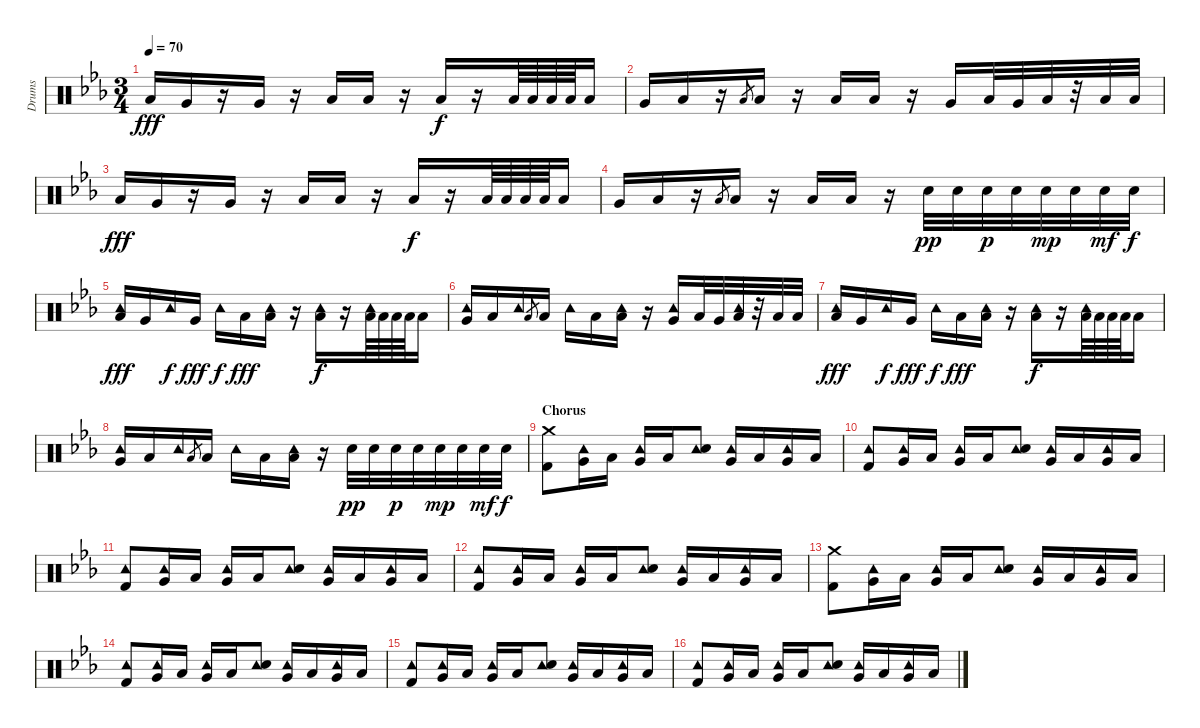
\track ("Drums" "Drums") {instrument percussion}
\staff {score}
\articulation defaults
\ts (3 4)
\tempo 70
\clef neutral
\ks cminor "Low Tom (hit)".16{dy fff} "Very Low Tom (hit)".16
r.16 "Very Low Tom (hit)".16 r.16 "Low Floor Tom (hit)".16 "Low Tom (hit)".16 r.16 "Low Floor Tom (hit)".16{dy f} r.16 "Low Floor Tom (hit)".64 "Low Floor Tom (hit)".64 "Low Floor Tom (hit)".64 "Low Floor Tom (hit)".64 "Low Floor Tom (hit)".16 |
"Very Low Tom (hit)".16 "Low Floor Tom (hit)".16 r.16 "Low Tom (hit)".8{gr} "Low Tom (hit)".16 r.16 "Low Floor Tom (hit)".16 "Low Tom (hit)".16 r.16 "Very Low Tom (hit)".16 "Low Tom (hit)".32 "Very Low Tom (hit)".32 "Low Tom (hit)".32 r.32 "Low Floor Tom (hit)".32 "Low Floor Tom (hit)".32 |
"Low Tom (hit)".16{dy fff} "Very Low Tom (hit)".16 r.16 "Very Low Tom (hit)".16 r.16 "Low Floor Tom (hit)".16 "Low Tom (hit)".16 r.16 "Low Floor Tom (hit)".16{dy f} r.16 "Low Floor Tom (hit)".64 "Low Floor Tom (hit)".64 "Low Floor Tom (hit)".64 "Low Floor Tom (hit)".64 "Low Floor Tom (hit)".16 |
"Very Low Tom (hit)".16 "Low Floor Tom (hit)".16 r.16 "Low Tom (hit)".8{gr} "Low Tom (hit)".16 r.16 "Low Floor Tom (hit)".16 "Low Tom (hit)".16 r.16 "Snare (hit) 2".32{dy pp} "Snare (hit) 2".32 "Snare (hit) 2".32{dy p} "Snare (hit) 2".32 "Snare (hit) 2".32{dy mp} "Snare (hit) 2".32 "Snare (hit) 2".32{dy mf} "Snare (hit) 2".32{dy f} |
("Tambourine (hit)" "Low Tom (hit)").16{dy fff} "Very Low Tom (hit)".16 "Tambourine (hit)".16{dy f} "Very Low Tom (hit)".16{dy fff} "Tambourine (hit)".16{dy f} "Low Floor Tom (hit)".16{dy fff} ("Tambourine (hit)" "Low Tom (hit)").16 r.16 ("Tambourine (hit)" "Low Floor Tom (hit)").16{dy f} r.16 ("Tambourine (hit)" "Low Floor Tom (hit)").64 "Low Floor Tom (hit)".64 "Low Floor Tom (hit)".64 "Low Floor Tom (hit)".64 "Low Floor Tom (hit)".16 |
("Tambourine (hit)" "Very Low Tom (hit)").16 "Low Floor Tom (hit)".16 "Tambourine (hit)".16 "Low Tom (hit)".8{gr} "Low Tom (hit)".16 "Tambourine (hit)".16 "Low Floor Tom (hit)".16 ("Tambourine (hit)" "Low Tom (hit)").16 r.16 ("Tambourine (hit)" "Very Low Tom (hit)").16 "Low Tom (hit)".32 "Very Low Tom (hit)".32 ("Tambourine (hit)" "Low Tom (hit)").32 r.32 "Low Floor Tom (hit)".32 "Low Floor Tom (hit)".32 |
("Tambourine (hit)" "Low Tom (hit)").16{dy fff} "Very Low Tom (hit)".16 "Tambourine (hit)".16{dy f} "Very Low Tom (hit)".16{dy fff} "Tambourine (hit)".16{dy f} "Low Floor Tom (hit)".16{dy fff} ("Tambourine (hit)" "Low Tom (hit)").16 r.16 ("Tambourine (hit)" "Low Floor Tom (hit)").16{dy f} r.16 ("Tambourine (hit)" "Low Floor Tom (hit)").64 "Low Floor Tom (hit)".64 "Low Floor Tom (hit)".64 "Low Floor Tom (hit)".64 "Low Floor Tom (hit)".16 |
("Tambourine (hit)" "Very Low Tom (hit)").16 "Low Floor Tom (hit)".16 "Tambourine (hit)".16 "Low Tom (hit)".8{gr} "Low Tom (hit)".16 "Tambourine (hit)".16 "Low Floor Tom (hit)".16 ("Tambourine (hit)" "Low Tom (hit)").16 r.16 "Snare (hit) 2".32{dy pp} "Snare (hit) 2".32 "Snare (hit) 2".32{dy p} "Snare (hit) 2".32 "Snare (hit) 2".32{dy mp} "Snare (hit) 2".32 "Snare (hit) 2".32{dy mf} "Snare (hit) 2".32{dy f} |
\section ("" "Chorus")
("Crash medium (hit)" "Kick (hit) 2").8 ("Tambourine (hit)" "Very Low Tom (hit)").16 "Low Floor Tom (hit)".16 ("Tambourine (hit)" "Very Low Tom (hit)").16 "Low Floor Tom (hit)".16 ("Tambourine (hit)" "Snare (hit) 2").8 ("Tambourine (hit)" "Very Low Tom (hit)").16 "Low Floor Tom (hit)".16 ("Tambourine (hit)" "Very Low Tom (hit)").16 "Low Floor Tom (hit)".16 |
("Tambourine (hit)" "Kick (hit) 2").8 ("Tambourine (hit)" "Very Low Tom (hit)").16 "Low Floor Tom (hit)".16 ("Tambourine (hit)" "Very Low Tom (hit)").16 "Low Floor Tom (hit)".16 ("Tambourine (hit)" "Snare (hit) 2").8 ("Tambourine (hit)" "Very Low Tom (hit)").16 "Low Floor Tom (hit)".16 ("Tambourine (hit)" "Very Low Tom (hit)").16 "Low Floor Tom (hit)".16 |
("Tambourine (hit)" "Kick (hit) 2").8 ("Tambourine (hit)" "Very Low Tom (hit)").16 "Low Floor Tom (hit)".16 ("Tambourine (hit)" "Very Low Tom (hit)").16 "Low Floor Tom (hit)".16 ("Tambourine (hit)" "Snare (hit) 2").8 ("Tambourine (hit)" "Very Low Tom (hit)").16 "Low Floor Tom (hit)".16 ("Tambourine (hit)" "Very Low Tom (hit)").16 "Low Floor Tom (hit)".16 |
("Tambourine (hit)" "Kick (hit) 2").8 ("Tambourine (hit)" "Very Low Tom (hit)").16 "Low Floor Tom (hit)".16 ("Tambourine (hit)" "Very Low Tom (hit)").16 "Low Floor Tom (hit)".16 ("Tambourine (hit)" "Snare (hit) 2").8 ("Tambourine (hit)" "Very Low Tom (hit)").16 "Low Floor Tom (hit)".16 ("Tambourine (hit)" "Very Low Tom (hit)").16 "Low Floor Tom (hit)".16 |
("Crash medium (hit)" "Kick (hit) 2").8 ("Tambourine (hit)" "Very Low Tom (hit)").16 "Low Floor Tom (hit)".16 ("Tambourine (hit)" "Very Low Tom (hit)").16 "Low Floor Tom (hit)".16 ("Tambourine (hit)" "Snare (hit) 2").8 ("Tambourine (hit)" "Very Low Tom (hit)").16 "Low Floor Tom (hit)".16 ("Tambourine (hit)" "Very Low Tom (hit)").16 "Low Floor Tom (hit)".16 |
("Tambourine (hit)" "Kick (hit) 2").8 ("Tambourine (hit)" "Very Low Tom (hit)").16 "Low Floor Tom (hit)".16 ("Tambourine (hit)" "Very Low Tom (hit)").16 "Low Floor Tom (hit)".16 ("Tambourine (hit)" "Snare (hit) 2").8 ("Tambourine (hit)" "Very Low Tom (hit)").16 "Low Floor Tom (hit)".16 ("Tambourine (hit)" "Very Low Tom (hit)").16 "Low Floor Tom (hit)".16 |
("Tambourine (hit)" "Kick (hit) 2").8 ("Tambourine (hit)" "Very Low Tom (hit)").16 "Low Floor Tom (hit)".16 ("Tambourine (hit)" "Very Low Tom (hit)").16 "Low Floor Tom (hit)".16 ("Tambourine (hit)" "Snare (hit) 2").8 ("Tambourine (hit)" "Very Low Tom (hit)").16 "Low Floor Tom (hit)".16 ("Tambourine (hit)" "Very Low Tom (hit)").16 "Low Floor Tom (hit)".16 |
("Tambourine (hit)" "Kick (hit) 2").8 ("Tambourine (hit)" "Very Low Tom (hit)").16 "Low Floor Tom (hit)".16 ("Tambourine (hit)" "Very Low Tom (hit)").16 "Low Floor Tom (hit)".16 ("Tambourine (hit)" "Snare (hit) 2").8 ("Tambourine (hit)" "Very Low Tom (hit)").16 "Low Floor Tom (hit)".16 ("Tambourine (hit)" "Very Low Tom (hit)").16 "Low Floor Tom (hit)".16
